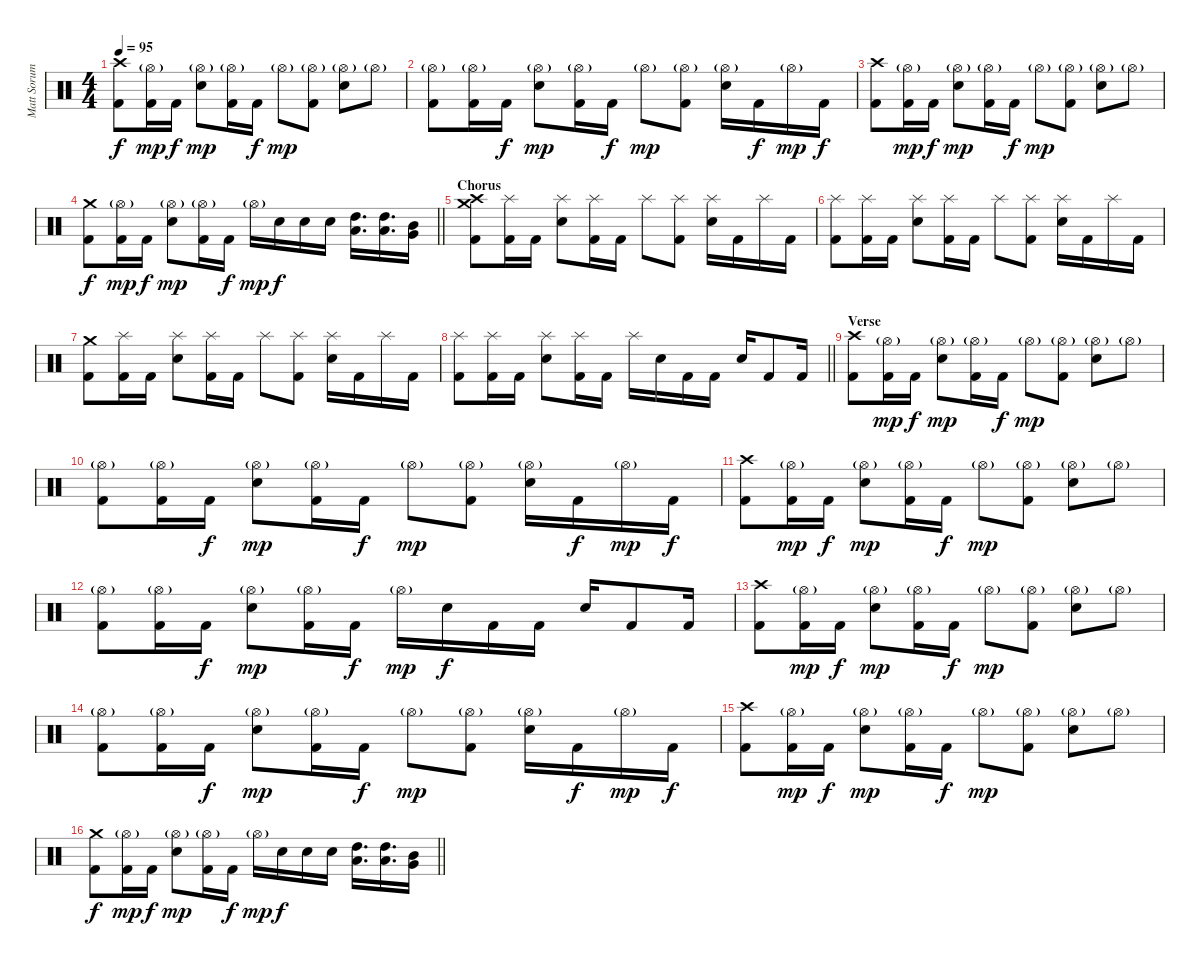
\track ("Matt Sorum" "Matt Sorum") {instrument percussion}
\staff {score}
\articulation defaults
\ts (4 4)
\tempo 95
\clef neutral
\ks c
("Crash high (hit)" "Kick (hit) 2").8{dy f} ("Hi-Hat (open)"{g} "Kick (hit) 2").16{dy mp} "Kick (hit) 2".16{dy f} ("Hi-Hat (open)"{g} "Electric Snare (hit)").8{dy mp} ("Hi-Hat (open)"{g} "Kick (hit) 2").16 "Kick (hit) 2".16{dy f} "Hi-Hat (open)"{g}.8{dy mp} ("Hi-Hat (open)"{g} "Kick (hit) 2").8 ("Hi-Hat (open)"{g} "Electric Snare (hit)").8 "Hi-Hat (open)"{g}.8 |
("Hi-Hat (open)"{g} "Kick (hit) 2").8 ("Hi-Hat (open)"{g} "Kick (hit) 2").16 "Kick (hit) 2".16{dy f} ("Hi-Hat (open)"{g} "Electric Snare (hit)").8{dy mp} ("Hi-Hat (open)"{g} "Kick (hit) 2").16 "Kick (hit) 2".16{dy f} "Hi-Hat (open)"{g}.8{dy mp} ("Hi-Hat (open)"{g} "Kick (hit) 2").8 ("Hi-Hat (open)"{g} "Electric Snare (hit)").16 "Kick (hit) 2".16{dy f} "Hi-Hat (open)"{g}.16{dy mp} "Kick (hit) 2".16{dy f} |
("Crash high (hit)" "Kick (hit) 2").8 ("Hi-Hat (open)"{g} "Kick (hit) 2").16{dy mp} "Kick (hit) 2".16{dy f} ("Hi-Hat (open)"{g} "Electric Snare (hit)").8{dy mp} ("Hi-Hat (open)"{g} "Kick (hit) 2").16 "Kick (hit) 2".16{dy f} "Hi-Hat (open)"{g}.8{dy mp} ("Hi-Hat (open)"{g} "Kick (hit) 2").8 ("Hi-Hat (open)"{g} "Electric Snare (hit)").8 "Hi-Hat (open)"{g}.8 |
\barLineRight lightlight
("Crash medium (hit)" "Kick (hit) 2").8{dy f} ("Hi-Hat (open)"{g} "Kick (hit) 2").16{dy mp} "Kick (hit) 2".16{dy f} ("Hi-Hat (open)"{g} "Electric Snare (hit)").8{dy mp} ("Hi-Hat (open)"{g} "Kick (hit) 2").16 "Kick (hit) 2".16{dy f} "Hi-Hat (open)"{g}.16{dy mp} "Electric Snare (hit)".16{dy f} "Electric Snare (hit)".16 "Electric Snare (hit)".16 ("High Tom (hit)" "Low Tom (hit)").16{d} ("High Tom (hit)" "Low Tom (hit)").16{d} ("Mid Tom (hit)" "Very Low Tom (hit)").16 |
\section ("" "Chorus")
("Crash medium (hit)" "Crash high (hit)" "Kick (hit) 2").8 ("Splash (hit)" "Kick (hit) 2").16 "Kick (hit) 2".16 ("Splash (hit)" "Electric Snare (hit)").8 ("Splash (hit)" "Kick (hit) 2").16 "Kick (hit) 2".16 "Splash (hit)".8 ("Splash (hit)" "Kick (hit) 2").8 ("Splash (hit)" "Electric Snare (hit)").16 "Kick (hit) 2".16 "Splash (hit)".16 "Kick (hit) 2".16 |
("Splash (hit)" "Kick (hit) 2").8 ("Splash (hit)" "Kick (hit) 2").16 "Kick (hit) 2".16 ("Splash (hit)" "Electric Snare (hit)").8 ("Splash (hit)" "Kick (hit) 2").16 "Kick (hit) 2".16 "Splash (hit)".8 ("Splash (hit)" "Kick (hit) 2").8 ("Splash (hit)" "Electric Snare (hit)").16 "Kick (hit) 2".16 "Splash (hit)".16 "Kick (hit) 2".16 |
("Crash medium (hit)" "Kick (hit) 2").8 ("Splash (hit)" "Kick (hit) 2").16 "Kick (hit) 2".16 ("Splash (hit)" "Electric Snare (hit)").8 ("Splash (hit)" "Kick (hit) 2").16 "Kick (hit) 2".16 "Splash (hit)".8 ("Splash (hit)" "Kick (hit) 2").8 ("Splash (hit)" "Electric Snare (hit)").16 "Kick (hit) 2".16 "Splash (hit)".16 "Kick (hit) 2".16 |
\barLineRight lightlight
("Splash (hit)" "Kick (hit) 2").8 ("Splash (hit)" "Kick (hit) 2").16 "Kick (hit) 2".16 ("Splash (hit)" "Electric Snare (hit)").8 ("Splash (hit)" "Kick (hit) 2").16 "Kick (hit) 2".16 "Splash (hit)".16 "Electric Snare (hit)".16 "Kick (hit) 2".16 "Kick (hit) 2".16 "Electric Snare (hit)".16 "Kick (hit) 2".8 "Kick (hit) 2".16 |
\section ("" "Verse")
("Crash high (hit)" "Kick (hit) 2").8 ("Hi-Hat (open)"{g} "Kick (hit) 2").16{dy mp} "Kick (hit) 2".16{dy f} ("Hi-Hat (open)"{g} "Electric Snare (hit)").8{dy mp} ("Hi-Hat (open)"{g} "Kick (hit) 2").16 "Kick (hit) 2".16{dy f} "Hi-Hat (open)"{g}.8{dy mp} ("Hi-Hat (open)"{g} "Kick (hit) 2").8 ("Hi-Hat (open)"{g} "Electric Snare (hit)").8 "Hi-Hat (open)"{g}.8 |
("Hi-Hat (open)"{g} "Kick (hit) 2").8 ("Hi-Hat (open)"{g} "Kick (hit) 2").16 "Kick (hit) 2".16{dy f} ("Hi-Hat (open)"{g} "Electric Snare (hit)").8{dy mp} ("Hi-Hat (open)"{g} "Kick (hit) 2").16 "Kick (hit) 2".16{dy f} "Hi-Hat (open)"{g}.8{dy mp} ("Hi-Hat (open)"{g} "Kick (hit) 2").8 ("Hi-Hat (open)"{g} "Electric Snare (hit)").16 "Kick (hit) 2".16{dy f} "Hi-Hat (open)"{g}.16{dy mp} "Kick (hit) 2".16{dy f} |
("Crash high (hit)" "Kick (hit) 2").8 ("Hi-Hat (open)"{g} "Kick (hit) 2").16{dy mp} "Kick (hit) 2".16{dy f} ("Hi-Hat (open)"{g} "Electric Snare (hit)").8{dy mp} ("Hi-Hat (open)"{g} "Kick (hit) 2").16 "Kick (hit) 2".16{dy f} "Hi-Hat (open)"{g}.8{dy mp} ("Hi-Hat (open)"{g} "Kick (hit) 2").8 ("Hi-Hat (open)"{g} "Electric Snare (hit)").8 "Hi-Hat (open)"{g}.8 |
("Hi-Hat (open)"{g} "Kick (hit) 2").8 ("Hi-Hat (open)"{g} "Kick (hit) 2").16 "Kick (hit) 2".16{dy f} ("Hi-Hat (open)"{g} "Electric Snare (hit)").8{dy mp} ("Hi-Hat (open)"{g} "Kick (hit) 2").16 "Kick (hit) 2".16{dy f} "Hi-Hat (open)"{g}.16{dy mp} "Electric Snare (hit)".16{dy f} "Kick (hit) 2".16 "Kick (hit) 2".16 "Electric Snare (hit)".16 "Kick (hit) 2".8 "Kick (hit) 2".16 |
("Crash high (hit)" "Kick (hit) 2").8 ("Hi-Hat (open)"{g} "Kick (hit) 2").16{dy mp} "Kick (hit) 2".16{dy f} ("Hi-Hat (open)"{g} "Electric Snare (hit)").8{dy mp} ("Hi-Hat (open)"{g} "Kick (hit) 2").16 "Kick (hit) 2".16{dy f} "Hi-Hat (open)"{g}.8{dy mp} ("Hi-Hat (open)"{g} "Kick (hit) 2").8 ("Hi-Hat (open)"{g} "Electric Snare (hit)").8 "Hi-Hat (open)"{g}.8 |
("Hi-Hat (open)"{g} "Kick (hit) 2").8 ("Hi-Hat (open)"{g} "Kick (hit) 2").16 "Kick (hit) 2".16{dy f} ("Hi-Hat (open)"{g} "Electric Snare (hit)").8{dy mp} ("Hi-Hat (open)"{g} "Kick (hit) 2").16 "Kick (hit) 2".16{dy f} "Hi-Hat (open)"{g}.8{dy mp} ("Hi-Hat (open)"{g} "Kick (hit) 2").8 ("Hi-Hat (open)"{g} "Electric Snare (hit)").16 "Kick (hit) 2".16{dy f} "Hi-Hat (open)"{g}.16{dy mp} "Kick (hit) 2".16{dy f} |
("Crash high (hit)" "Kick (hit) 2").8 ("Hi-Hat (open)"{g} "Kick (hit) 2").16{dy mp} "Kick (hit) 2".16{dy f} ("Hi-Hat (open)"{g} "Electric Snare (hit)").8{dy mp} ("Hi-Hat (open)"{g} "Kick (hit) 2").16 "Kick (hit) 2".16{dy f} "Hi-Hat (open)"{g}.8{dy mp} ("Hi-Hat (open)"{g} "Kick (hit) 2").8 ("Hi-Hat (open)"{g} "Electric Snare (hit)").8 "Hi-Hat (open)"{g}.8 |
\barLineRight lightlight
("Crash medium (hit)" "Kick (hit) 2").8{dy f} ("Hi-Hat (open)"{g} "Kick (hit) 2").16{dy mp} "Kick (hit) 2".16{dy f} ("Hi-Hat (open)"{g} "Electric Snare (hit)").8{dy mp} ("Hi-Hat (open)"{g} "Kick (hit) 2").16 "Kick (hit) 2".16{dy f} "Hi-Hat (open)"{g}.16{dy mp} "Electric Snare (hit)".16{dy f} "Electric Snare (hit)".16 "Electric Snare (hit)".16 ("High Tom (hit)" "Low Tom (hit)").16{d} ("High Tom (hit)" "Low Tom (hit)").16{d} ("Mid Tom (hit)" "Very Low Tom (hit)").16
